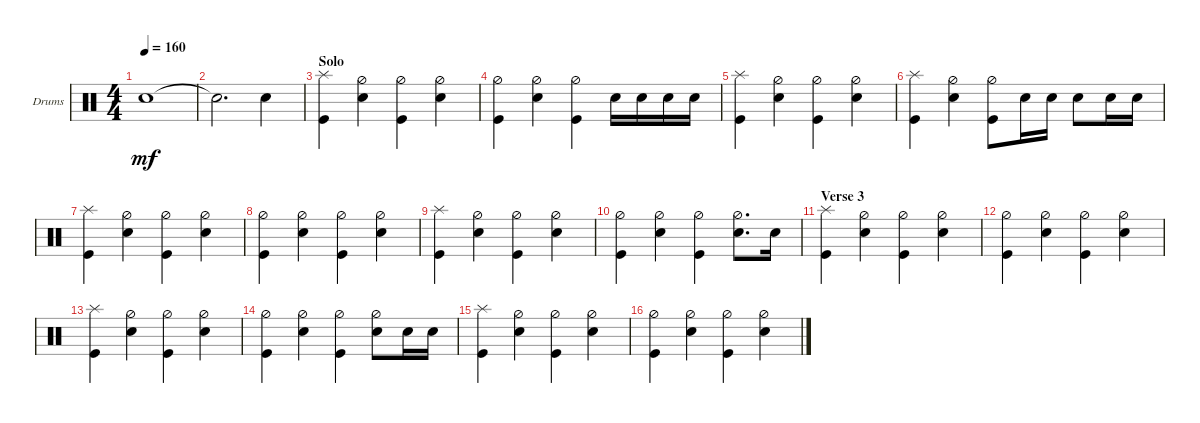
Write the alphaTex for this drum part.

\defaultSystemsLayout 4
\bracketExtendMode groupsimilarinstruments
\firstSystemTrackNameOrientation horizontal
\otherSystemsTrackNameOrientation horizontal
\track ("Drumkit" "Drums") {instrument percussion}
\staff {score}
\articulation defaults
\ts (4 4)
\tempo 160
\clef neutral
\ks c "Snare (hit) 2"{t}.1{dy mf}
|
"Snare (hit) 2"{t}.2{d} "Snare (hit) 2".4 |
\section ("" "Solo")
("Splash (hit)" "Kick (hit)").4 ("Hi-Hat (half)" "Snare (hit) 2").4 ("Hi-Hat (half)" "Kick (hit)").4 ("Hi-Hat (half)" "Snare (hit) 2").4 |
("Hi-Hat (half)" "Kick (hit)").4 ("Hi-Hat (half)" "Snare (hit) 2").4 ("Hi-Hat (half)" "Kick (hit)").4 "Snare (hit) 2".16 "Snare (hit) 2".16 "Snare (hit) 2".16 "Snare (hit) 2".16 |
("Splash (hit)" "Kick (hit)").4 ("Hi-Hat (half)" "Snare (hit) 2").4 ("Hi-Hat (half)" "Kick (hit)").4 ("Hi-Hat (half)" "Snare (hit) 2").4 |
("Splash (hit)" "Kick (hit)").4 ("Hi-Hat (half)" "Snare (hit) 2").4 ("Kick (hit)" "Hi-Hat (half)").8 "Snare (hit) 2".16 "Snare (hit) 2".16 "Snare (hit) 2".8 "Snare (hit) 2".16 "Snare (hit) 2".16 |
("Kick (hit)" "Splash (hit)").4 ("Hi-Hat (half)" "Snare (hit) 2").4 ("Hi-Hat (half)" "Kick (hit)").4 ("Hi-Hat (half)" "Snare (hit) 2").4 |
("Hi-Hat (half)" "Kick (hit)").4 ("Hi-Hat (half)" "Snare (hit) 2").4 ("Hi-Hat (half)" "Kick (hit)").4 ("Hi-Hat (half)" "Snare (hit) 2").4 |
("Kick (hit)" "Splash (hit)").4 ("Hi-Hat (half)" "Snare (hit) 2").4 ("Hi-Hat (half)" "Kick (hit)").4 ("Hi-Hat (half)" "Snare (hit) 2").4 |
("Hi-Hat (half)" "Kick (hit)").4 ("Hi-Hat (half)" "Snare (hit) 2").4 ("Hi-Hat (half)" "Kick (hit)").4 ("Hi-Hat (half)" "Snare (hit) 2").8{d} "Snare (hit) 2".16 |
\section ("" "Verse 3")
("Kick (hit)" "Splash (hit)").4 ("Hi-Hat (half)" "Snare (hit) 2").4 ("Hi-Hat (half)" "Kick (hit)").4 ("Hi-Hat (half)" "Snare (hit) 2").4 |
("Hi-Hat (half)" "Kick (hit)").4 ("Hi-Hat (half)" "Snare (hit) 2").4 ("Hi-Hat (half)" "Kick (hit)").4 ("Hi-Hat (half)" "Snare (hit) 2").4 |
("Splash (hit)" "Kick (hit)").4 ("Hi-Hat (half)" "Snare (hit) 2").4 ("Hi-Hat (half)" "Kick (hit)").4 ("Hi-Hat (half)" "Snare (hit) 2").4 |
("Hi-Hat (half)" "Kick (hit)").4 ("Hi-Hat (half)" "Snare (hit) 2").4 ("Hi-Hat (half)" "Kick (hit)").4 ("Hi-Hat (half)" "Snare (hit) 2").8 "Snare (hit) 2".16 "Snare (hit) 2".16 |
("Kick (hit)" "Splash (hit)").4 ("Hi-Hat (half)" "Snare (hit) 2").4 ("Hi-Hat (half)" "Kick (hit)").4 ("Hi-Hat (half)" "Snare (hit) 2").4 |
("Hi-Hat (half)" "Kick (hit)").4 ("Hi-Hat (half)" "Snare (hit) 2").4 ("Hi-Hat (half)" "Kick (hit)").4 ("Hi-Hat (half)" "Snare (hit) 2").4
